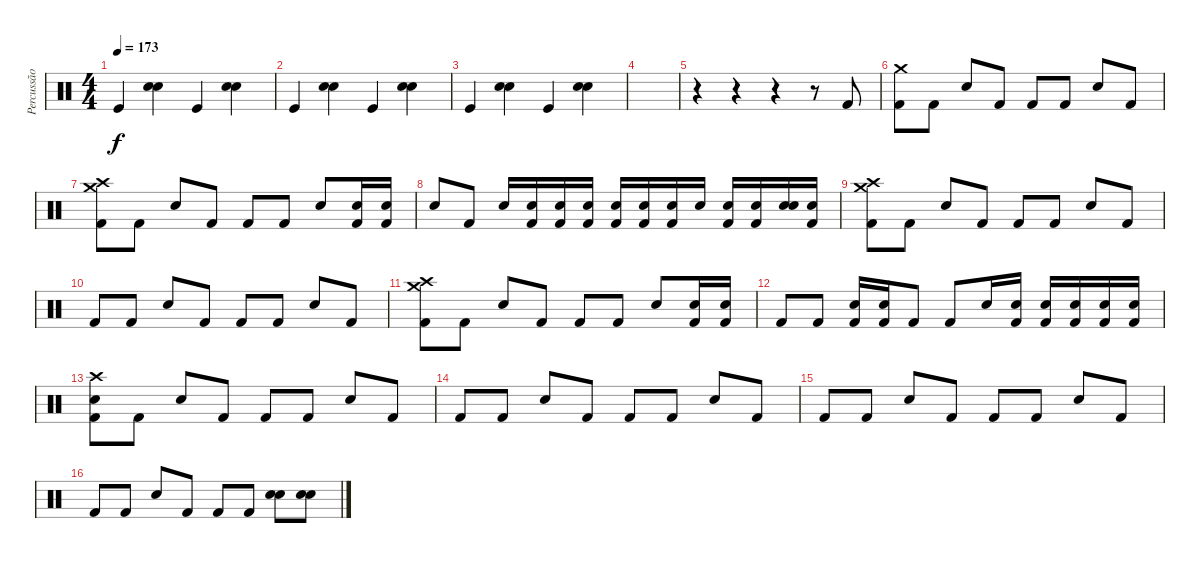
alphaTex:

\track ("Percussão" "Percussão") {instrument percussion}
\staff {score}
\articulation defaults
\ts (4 4)
\tempo 173
\clef neutral
\ks c "Kick (hit)".4{dy f}
("Snare (hit) 2" "Electric Snare (hit)").4 "Kick (hit)".4 ("Snare (hit) 2" "Electric Snare (hit)").4 |
"Kick (hit)".4 ("Snare (hit) 2" "Electric Snare (hit)").4 "Kick (hit)".4 ("Snare (hit) 2" "Electric Snare (hit)").4 |
"Kick (hit)".4 ("Snare (hit) 2" "Electric Snare (hit)").4 "Kick (hit)".4 ("Snare (hit) 2" "Electric Snare (hit)").4 |
|
r.4 r.4 r.4 r.8 "Kick (hit) 2".8 |
("Kick (hit) 2" "Crash medium (hit)").8 "Kick (hit) 2".8 "Snare (hit) 2".8 "Kick (hit) 2".8 "Kick (hit) 2".8 "Kick (hit) 2".8 "Snare (hit) 2".8 "Kick (hit) 2".8 |
("Crash high (hit)" "Kick (hit) 2" "Crash medium (hit)").8 "Kick (hit) 2".8 "Snare (hit) 2".8 "Kick (hit) 2".8 "Kick (hit) 2".8 "Kick (hit) 2".8 "Snare (hit) 2".8 ("Kick (hit) 2" "Electric Snare (hit)").16 ("Kick (hit) 2" "Electric Snare (hit)").16 |
"Snare (hit) 2".8 "Kick (hit) 2".8 "Snare (hit) 2".16 ("Kick (hit) 2" "Electric Snare (hit)").16 ("Kick (hit) 2" "Electric Snare (hit)").16 ("Kick (hit) 2" "Electric Snare (hit)").16 ("Kick (hit) 2" "Electric Snare (hit)").16 ("Kick (hit) 2" "Electric Snare (hit)").16 ("Kick (hit) 2" "Electric Snare (hit)").16 "Snare (hit) 2".16 ("Kick (hit) 2" "Electric Snare (hit)").16 ("Kick (hit) 2" "Electric Snare (hit)").16 ("Snare (hit) 2" "Electric Snare (hit)").16 ("Kick (hit) 2" "Electric Snare (hit)").16 |
("Crash high (hit)" "Kick (hit) 2" "Crash medium (hit)").8 "Kick (hit) 2".8 "Snare (hit) 2".8 "Kick (hit) 2".8 "Kick (hit) 2".8 "Kick (hit) 2".8 "Snare (hit) 2".8 "Kick (hit) 2".8 |
"Kick (hit) 2".8 "Kick (hit) 2".8 "Snare (hit) 2".8 "Kick (hit) 2".8 "Kick (hit) 2".8 "Kick (hit) 2".8 "Snare (hit) 2".8 "Kick (hit) 2".8 |
("Crash high (hit)" "Kick (hit) 2" "Crash medium (hit)").8 "Kick (hit) 2".8 "Snare (hit) 2".8 "Kick (hit) 2".8 "Kick (hit) 2".8 "Kick (hit) 2".8 "Snare (hit) 2".8 ("Kick (hit) 2" "Electric Snare (hit)").16 ("Kick (hit) 2" "Electric Snare (hit)").16 |
"Kick (hit) 2".8 "Kick (hit) 2".8 ("Kick (hit) 2" "Electric Snare (hit)").16 ("Kick (hit) 2" "Electric Snare (hit)").16 "Kick (hit) 2".8 "Kick (hit) 2".8 "Snare (hit) 2".16 ("Kick (hit) 2" "Electric Snare (hit)").16 ("Kick (hit) 2" "Electric Snare (hit)").16 ("Kick (hit) 2" "Electric Snare (hit)").16 ("Kick (hit) 2" "Electric Snare (hit)").16 ("Kick (hit) 2" "Electric Snare (hit)").16 |
("Crash high (hit)" "Kick (hit) 2" "Electric Snare (hit)").8 "Kick (hit) 2".8 "Snare (hit) 2".8 "Kick (hit) 2".8 "Kick (hit) 2".8 "Kick (hit) 2".8 "Snare (hit) 2".8 "Kick (hit) 2".8 |
"Kick (hit) 2".8 "Kick (hit) 2".8 "Snare (hit) 2".8 "Kick (hit) 2".8 "Kick (hit) 2".8 "Kick (hit) 2".8 "Snare (hit) 2".8 "Kick (hit) 2".8 |
"Kick (hit) 2".8 "Kick (hit) 2".8 "Snare (hit) 2".8 "Kick (hit) 2".8 "Kick (hit) 2".8 "Kick (hit) 2".8 "Snare (hit) 2".8 "Kick (hit) 2".8 |
"Kick (hit) 2".8 "Kick (hit) 2".8 "Snare (hit) 2".8 "Kick (hit) 2".8 "Kick (hit) 2".8 "Kick (hit) 2".8 ("Snare (hit) 2" "Electric Snare (hit)").8 ("Snare (hit) 2" "Electric Snare (hit)").8
